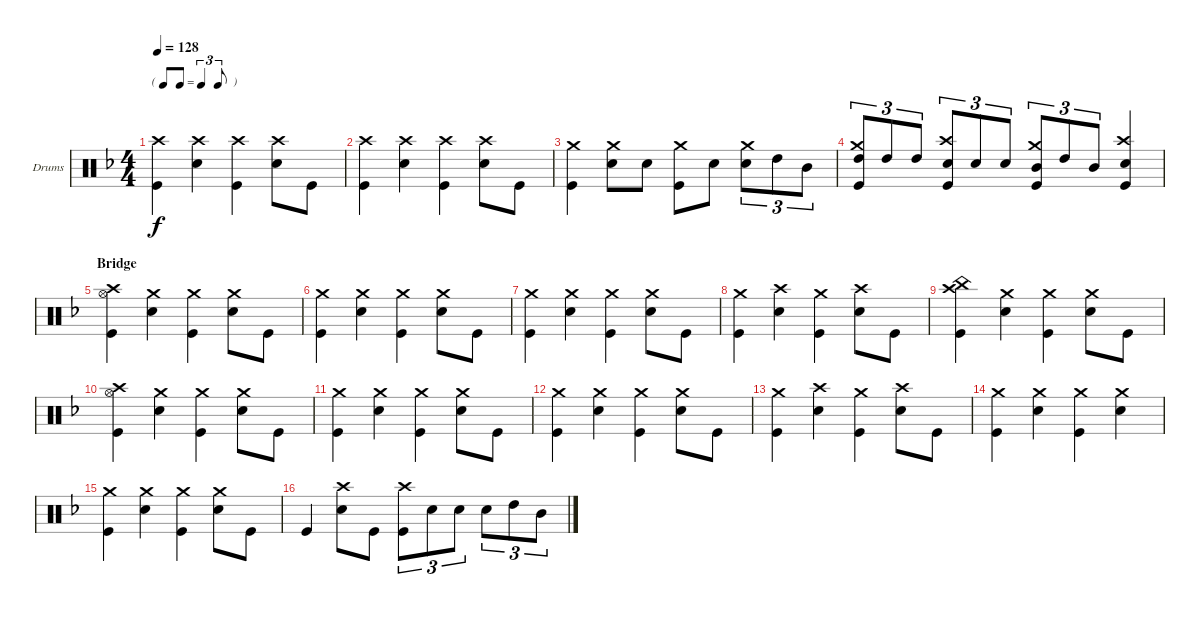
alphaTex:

\defaultSystemsLayout 4
\bracketExtendMode groupsimilarinstruments
\firstSystemTrackNameOrientation horizontal
\otherSystemsTrackNameOrientation horizontal
\track ("Drumkit" "Drums") {instrument percussion}
\staff {score}
\articulation defaults
\ts (4 4)
\tf triplet8th
\tempo 128
\clef neutral
\scale
0.333333
\ks f
("Kick (hit)" "Crash high (hit)").4{dy f} ("Snare (hit) 2" "Crash high (hit)").4 ("Kick (hit)" "Crash high (hit)").4 ("Snare (hit) 2" "Crash high (hit)").8 "Kick (hit)".8 |
\scale
0.333333 ("Kick (hit)" "Crash high (hit)").4 ("Snare (hit) 2" "Crash high (hit)").4 ("Kick (hit)" "Crash high (hit)").4 ("Snare (hit) 2" "Crash high (hit)").8 "Kick (hit)".8 |
\scale
0.333333 ("Crash medium (hit)" "Kick (hit)").4 ("Crash medium (hit)" "Snare (hit) 2").8 "Snare (hit) 2".8 ("Crash medium (hit)" "Kick (hit)").8 "Snare (hit) 2".8 ("Snare (hit) 2" "Crash medium (hit)").8{tu (3 2)} "High Tom (hit)".8{tu (3 2)} "Mid Tom (hit)".8{tu (3 2)} |
\scale
0.333333 ("Crash medium (hit)" "High Tom (hit)" "Kick (hit)").8{tu (3 2)} "High Tom (hit)".8{tu (3 2)} "High Tom (hit)".8{tu (3 2)} ("Crash high (hit)" "Snare (hit) 2" "Kick (hit)").8{tu (3 2)} "Snare (hit) 2".8{tu (3 2)} "Snare (hit) 2".8{tu (3 2)} ("Crash medium (hit)" "Mid Tom (hit)" "Kick (hit)").8{tu (3 2)} "High Tom (hit)".8{tu (3 2)} "Mid Tom (hit)".8{tu (3 2)} ("Crash high (hit)" "Snare (hit) 2" "Kick (hit)").4 |
\section ("" "Bridge")
\scale
0.333333 ("Kick (hit)" "Hi-Hat (open)" "Crash high (hit)").4 ("Snare (hit) 2" "Crash medium (hit)").4 ("Kick (hit)" "Crash medium (hit)").4 ("Snare (hit) 2" "Crash medium (hit)").8 "Kick (hit)".8 |
\scale
0.333333 ("Kick (hit)" "Crash medium (hit)").4 ("Snare (hit) 2" "Crash medium (hit)").4 ("Kick (hit)" "Crash medium (hit)").4 ("Snare (hit) 2" "Crash medium (hit)").8 "Kick (hit)".8 |
\scale
0.333333 ("Kick (hit)" "Crash medium (hit)").4 ("Snare (hit) 2" "Crash medium (hit)").4 ("Kick (hit)" "Crash medium (hit)").4 ("Snare (hit) 2" "Crash medium (hit)").8 "Kick (hit)".8 |
\scale
0.333333 ("Kick (hit)" "Crash medium (hit)").4 ("Snare (hit) 2" "Crash high (hit)").4 ("Kick (hit)" "Crash medium (hit)").4 ("Snare (hit) 2" "Crash high (hit)").8 "Kick (hit)".8 |
\scale
0.333333 ("Kick (hit)" "Crash high (hit)" "China (hit)").4 ("Snare (hit) 2" "Crash medium (hit)").4 ("Kick (hit)" "Crash medium (hit)").4 ("Snare (hit) 2" "Crash medium (hit)").8 "Kick (hit)".8 |
\scale
0.333333 ("Kick (hit)" "Hi-Hat (open)" "Crash high (hit)").4 ("Snare (hit) 2" "Crash medium (hit)").4 ("Kick (hit)" "Crash medium (hit)").4 ("Snare (hit) 2" "Crash medium (hit)").8 "Kick (hit)".8 |
\scale
0.333333 ("Kick (hit)" "Crash medium (hit)").4 ("Snare (hit) 2" "Crash medium (hit)").4 ("Kick (hit)" "Crash medium (hit)").4 ("Snare (hit) 2" "Crash medium (hit)").8 "Kick (hit)".8 |
\scale
0.333333 ("Kick (hit)" "Crash medium (hit)").4 ("Snare (hit) 2" "Crash medium (hit)").4 ("Kick (hit)" "Crash medium (hit)").4 ("Snare (hit) 2" "Crash medium (hit)").8 "Kick (hit)".8 |
\scale
0.333333 ("Kick (hit)" "Crash medium (hit)").4 ("Snare (hit) 2" "Crash high (hit)").4 ("Kick (hit)" "Crash medium (hit)").4 ("Snare (hit) 2" "Crash high (hit)").8 "Kick (hit)".8 |
\scale
0.333333 ("Kick (hit)" "Crash medium (hit)").4 ("Snare (hit) 2" "Crash medium (hit)").4 ("Kick (hit)" "Crash medium (hit)").4 ("Snare (hit) 2" "Crash medium (hit)").4 |
\scale
0.333333 ("Kick (hit)" "Crash medium (hit)").4 ("Snare (hit) 2" "Crash medium (hit)").4 ("Kick (hit)" "Crash medium (hit)").4 ("Snare (hit) 2" "Crash medium (hit)").8 "Kick (hit)".8 |
\scale
0.333333 "Kick (hit)".4 ("Crash high (hit)" "Snare (hit) 2").8 "Kick (hit)".8 ("Crash high (hit)" "Kick (hit)").8{tu (3 2)} "Snare (hit) 2".8{tu (3 2)} "Snare (hit) 2".8{tu (3 2)} "Snare (hit) 2".8{tu (3 2)} "High Tom (hit)".8{tu (3 2)} "Mid Tom (hit)".8{tu (3 2)}
